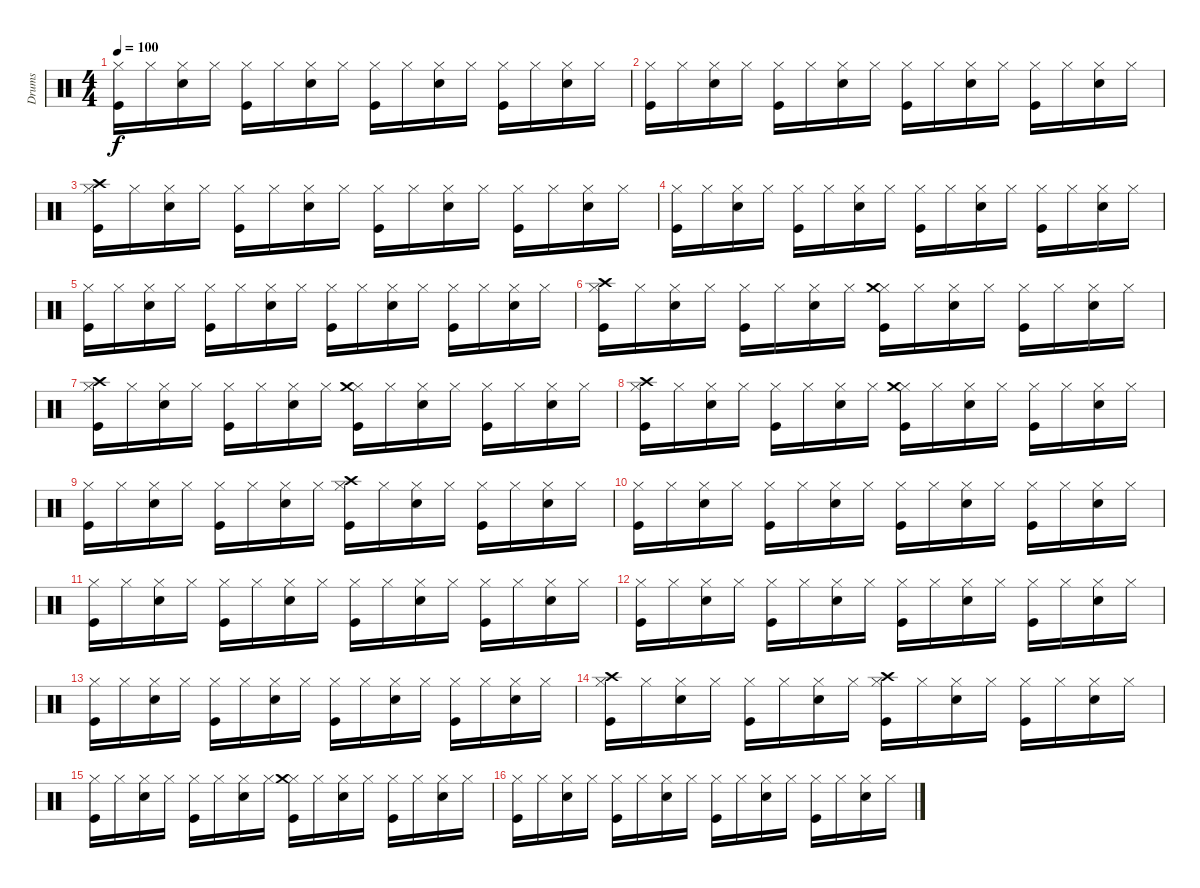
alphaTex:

\track ("Drums" "Drums") {instrument percussion}
\staff {score}
\articulation defaults
\ts (4 4)
\tempo 100
\clef neutral
\ks c
("Kick (hit)" "Hi-Hat (closed)").16{dy f} "Hi-Hat (closed)".16 ("Snare (hit) 2" "Hi-Hat (closed)").16 "Hi-Hat (closed)".16 ("Kick (hit)" "Hi-Hat (closed)").16 "Hi-Hat (closed)".16 ("Snare (hit) 2" "Hi-Hat (closed)").16 "Hi-Hat (closed)".16 ("Kick (hit)" "Hi-Hat (closed)").16 "Hi-Hat (closed)".16 ("Snare (hit) 2" "Hi-Hat (closed)").16 "Hi-Hat (closed)".16 ("Kick (hit)" "Hi-Hat (closed)").16 "Hi-Hat (closed)".16 ("Snare (hit) 2" "Hi-Hat (closed)").16 "Hi-Hat (closed)".16 |
("Kick (hit)" "Hi-Hat (closed)").16 "Hi-Hat (closed)".16 ("Snare (hit) 2" "Hi-Hat (closed)").16 "Hi-Hat (closed)".16 ("Kick (hit)" "Hi-Hat (closed)").16 "Hi-Hat (closed)".16 ("Snare (hit) 2" "Hi-Hat (closed)").16 "Hi-Hat (closed)".16 ("Kick (hit)" "Hi-Hat (closed)").16 "Hi-Hat (closed)".16 ("Snare (hit) 2" "Hi-Hat (closed)").16 "Hi-Hat (closed)".16 ("Kick (hit)" "Hi-Hat (closed)").16 "Hi-Hat (closed)".16 ("Snare (hit) 2" "Hi-Hat (closed)").16 "Hi-Hat (closed)".16 |
("Kick (hit)" "Hi-Hat (closed)" "Crash high (hit)").16 "Hi-Hat (closed)".16 ("Snare (hit) 2" "Hi-Hat (closed)").16 "Hi-Hat (closed)".16 ("Kick (hit)" "Hi-Hat (closed)").16 "Hi-Hat (closed)".16 ("Snare (hit) 2" "Hi-Hat (closed)").16 "Hi-Hat (closed)".16 ("Kick (hit)" "Hi-Hat (closed)").16 "Hi-Hat (closed)".16 ("Snare (hit) 2" "Hi-Hat (closed)").16 "Hi-Hat (closed)".16 ("Kick (hit)" "Hi-Hat (closed)").16 "Hi-Hat (closed)".16 ("Snare (hit) 2" "Hi-Hat (closed)").16 "Hi-Hat (closed)".16 |
("Kick (hit)" "Hi-Hat (closed)").16 "Hi-Hat (closed)".16 ("Snare (hit) 2" "Hi-Hat (closed)").16 "Hi-Hat (closed)".16 ("Kick (hit)" "Hi-Hat (closed)").16 "Hi-Hat (closed)".16 ("Snare (hit) 2" "Hi-Hat (closed)").16 "Hi-Hat (closed)".16 ("Kick (hit)" "Hi-Hat (closed)").16 "Hi-Hat (closed)".16 ("Snare (hit) 2" "Hi-Hat (closed)").16 "Hi-Hat (closed)".16 ("Kick (hit)" "Hi-Hat (closed)").16 "Hi-Hat (closed)".16 ("Snare (hit) 2" "Hi-Hat (closed)").16 "Hi-Hat (closed)".16 |
("Kick (hit)" "Hi-Hat (closed)").16 "Hi-Hat (closed)".16 ("Snare (hit) 2" "Hi-Hat (closed)").16 "Hi-Hat (closed)".16 ("Kick (hit)" "Hi-Hat (closed)").16 "Hi-Hat (closed)".16 ("Snare (hit) 2" "Hi-Hat (closed)").16 "Hi-Hat (closed)".16 ("Kick (hit)" "Hi-Hat (closed)").16 "Hi-Hat (closed)".16 ("Snare (hit) 2" "Hi-Hat (closed)").16 "Hi-Hat (closed)".16 ("Kick (hit)" "Hi-Hat (closed)").16 "Hi-Hat (closed)".16 ("Snare (hit) 2" "Hi-Hat (closed)").16 "Hi-Hat (closed)".16 |
("Kick (hit)" "Hi-Hat (closed)" "Crash high (hit)").16 "Hi-Hat (closed)".16 ("Snare (hit) 2" "Hi-Hat (closed)").16 "Hi-Hat (closed)".16 ("Kick (hit)" "Hi-Hat (closed)").16 "Hi-Hat (closed)".16 ("Snare (hit) 2" "Hi-Hat (closed)").16 "Hi-Hat (closed)".16 ("Kick (hit)" "Hi-Hat (closed)" "Crash medium (hit)").16 "Hi-Hat (closed)".16 ("Snare (hit) 2" "Hi-Hat (closed)").16 "Hi-Hat (closed)".16 ("Kick (hit)" "Hi-Hat (closed)").16 "Hi-Hat (closed)".16 ("Snare (hit) 2" "Hi-Hat (closed)").16 "Hi-Hat (closed)".16 |
("Kick (hit)" "Hi-Hat (closed)" "Crash high (hit)").16 "Hi-Hat (closed)".16 ("Snare (hit) 2" "Hi-Hat (closed)").16 "Hi-Hat (closed)".16 ("Kick (hit)" "Hi-Hat (closed)").16 "Hi-Hat (closed)".16 ("Snare (hit) 2" "Hi-Hat (closed)").16 "Hi-Hat (closed)".16 ("Kick (hit)" "Hi-Hat (closed)" "Crash medium (hit)").16 "Hi-Hat (closed)".16 ("Snare (hit) 2" "Hi-Hat (closed)").16 "Hi-Hat (closed)".16 ("Kick (hit)" "Hi-Hat (closed)").16 "Hi-Hat (closed)".16 ("Snare (hit) 2" "Hi-Hat (closed)").16 "Hi-Hat (closed)".16 |
("Kick (hit)" "Hi-Hat (closed)" "Crash high (hit)").16 "Hi-Hat (closed)".16 ("Snare (hit) 2" "Hi-Hat (closed)").16 "Hi-Hat (closed)".16 ("Kick (hit)" "Hi-Hat (closed)").16 "Hi-Hat (closed)".16 ("Snare (hit) 2" "Hi-Hat (closed)").16 "Hi-Hat (closed)".16 ("Kick (hit)" "Hi-Hat (closed)" "Crash medium (hit)").16 "Hi-Hat (closed)".16 ("Snare (hit) 2" "Hi-Hat (closed)").16 "Hi-Hat (closed)".16 ("Kick (hit)" "Hi-Hat (closed)").16 "Hi-Hat (closed)".16 ("Snare (hit) 2" "Hi-Hat (closed)").16 "Hi-Hat (closed)".16 |
("Kick (hit)" "Hi-Hat (closed)").16 "Hi-Hat (closed)".16 ("Snare (hit) 2" "Hi-Hat (closed)").16 "Hi-Hat (closed)".16 ("Kick (hit)" "Hi-Hat (closed)").16 "Hi-Hat (closed)".16 ("Snare (hit) 2" "Hi-Hat (closed)").16 "Hi-Hat (closed)".16 ("Kick (hit)" "Hi-Hat (closed)" "Crash high (hit)").16 "Hi-Hat (closed)".16 ("Snare (hit) 2" "Hi-Hat (closed)").16 "Hi-Hat (closed)".16 ("Kick (hit)" "Hi-Hat (closed)").16 "Hi-Hat (closed)".16 ("Snare (hit) 2" "Hi-Hat (closed)").16 "Hi-Hat (closed)".16 |
("Kick (hit)" "Hi-Hat (closed)").16 "Hi-Hat (closed)".16 ("Snare (hit) 2" "Hi-Hat (closed)").16 "Hi-Hat (closed)".16 ("Kick (hit)" "Hi-Hat (closed)").16 "Hi-Hat (closed)".16 ("Snare (hit) 2" "Hi-Hat (closed)").16 "Hi-Hat (closed)".16 ("Kick (hit)" "Hi-Hat (closed)").16 "Hi-Hat (closed)".16 ("Snare (hit) 2" "Hi-Hat (closed)").16 "Hi-Hat (closed)".16 ("Kick (hit)" "Hi-Hat (closed)").16 "Hi-Hat (closed)".16 ("Snare (hit) 2" "Hi-Hat (closed)").16 "Hi-Hat (closed)".16 |
("Kick (hit)" "Hi-Hat (closed)").16 "Hi-Hat (closed)".16 ("Snare (hit) 2" "Hi-Hat (closed)").16 "Hi-Hat (closed)".16 ("Kick (hit)" "Hi-Hat (closed)").16 "Hi-Hat (closed)".16 ("Snare (hit) 2" "Hi-Hat (closed)").16 "Hi-Hat (closed)".16 ("Kick (hit)" "Hi-Hat (closed)").16 "Hi-Hat (closed)".16 ("Snare (hit) 2" "Hi-Hat (closed)").16 "Hi-Hat (closed)".16 ("Kick (hit)" "Hi-Hat (closed)").16 "Hi-Hat (closed)".16 ("Snare (hit) 2" "Hi-Hat (closed)").16 "Hi-Hat (closed)".16 |
("Kick (hit)" "Hi-Hat (closed)").16 "Hi-Hat (closed)".16 ("Snare (hit) 2" "Hi-Hat (closed)").16 "Hi-Hat (closed)".16 ("Kick (hit)" "Hi-Hat (closed)").16 "Hi-Hat (closed)".16 ("Snare (hit) 2" "Hi-Hat (closed)").16 "Hi-Hat (closed)".16 ("Kick (hit)" "Hi-Hat (closed)").16 "Hi-Hat (closed)".16 ("Snare (hit) 2" "Hi-Hat (closed)").16 "Hi-Hat (closed)".16 ("Kick (hit)" "Hi-Hat (closed)").16 "Hi-Hat (closed)".16 ("Snare (hit) 2" "Hi-Hat (closed)").16 "Hi-Hat (closed)".16 |
("Kick (hit)" "Hi-Hat (closed)").16 "Hi-Hat (closed)".16 ("Snare (hit) 2" "Hi-Hat (closed)").16 "Hi-Hat (closed)".16 ("Kick (hit)" "Hi-Hat (closed)").16 "Hi-Hat (closed)".16 ("Snare (hit) 2" "Hi-Hat (closed)").16 "Hi-Hat (closed)".16 ("Kick (hit)" "Hi-Hat (closed)").16 "Hi-Hat (closed)".16 ("Snare (hit) 2" "Hi-Hat (closed)").16 "Hi-Hat (closed)".16 ("Kick (hit)" "Hi-Hat (closed)").16 "Hi-Hat (closed)".16 ("Snare (hit) 2" "Hi-Hat (closed)").16 "Hi-Hat (closed)".16 |
("Kick (hit)" "Hi-Hat (closed)" "Crash high (hit)").16 "Hi-Hat (closed)".16 ("Snare (hit) 2" "Hi-Hat (closed)").16 "Hi-Hat (closed)".16 ("Kick (hit)" "Hi-Hat (closed)").16 "Hi-Hat (closed)".16 ("Snare (hit) 2" "Hi-Hat (closed)").16 "Hi-Hat (closed)".16 ("Kick (hit)" "Hi-Hat (closed)" "Crash high (hit)").16 "Hi-Hat (closed)".16 ("Snare (hit) 2" "Hi-Hat (closed)").16 "Hi-Hat (closed)".16 ("Kick (hit)" "Hi-Hat (closed)").16 "Hi-Hat (closed)".16 ("Snare (hit) 2" "Hi-Hat (closed)").16 "Hi-Hat (closed)".16 |
("Kick (hit)" "Hi-Hat (closed)").16 "Hi-Hat (closed)".16 ("Snare (hit) 2" "Hi-Hat (closed)").16 "Hi-Hat (closed)".16 ("Kick (hit)" "Hi-Hat (closed)").16 "Hi-Hat (closed)".16 ("Snare (hit) 2" "Hi-Hat (closed)").16 "Hi-Hat (closed)".16 ("Kick (hit)" "Hi-Hat (closed)" "Crash medium (hit)").16 "Hi-Hat (closed)".16 ("Snare (hit) 2" "Hi-Hat (closed)").16 "Hi-Hat (closed)".16 ("Kick (hit)" "Hi-Hat (closed)").16 "Hi-Hat (closed)".16 ("Snare (hit) 2" "Hi-Hat (closed)").16 "Hi-Hat (closed)".16 |
("Kick (hit)" "Hi-Hat (closed)").16 "Hi-Hat (closed)".16 ("Snare (hit) 2" "Hi-Hat (closed)").16 "Hi-Hat (closed)".16 ("Kick (hit)" "Hi-Hat (closed)").16 "Hi-Hat (closed)".16 ("Snare (hit) 2" "Hi-Hat (closed)").16 "Hi-Hat (closed)".16 ("Kick (hit)" "Hi-Hat (closed)").16 "Hi-Hat (closed)".16 ("Snare (hit) 2" "Hi-Hat (closed)").16 "Hi-Hat (closed)".16 ("Kick (hit)" "Hi-Hat (closed)").16 "Hi-Hat (closed)".16 ("Snare (hit) 2" "Hi-Hat (closed)").16 "Hi-Hat (closed)".16
